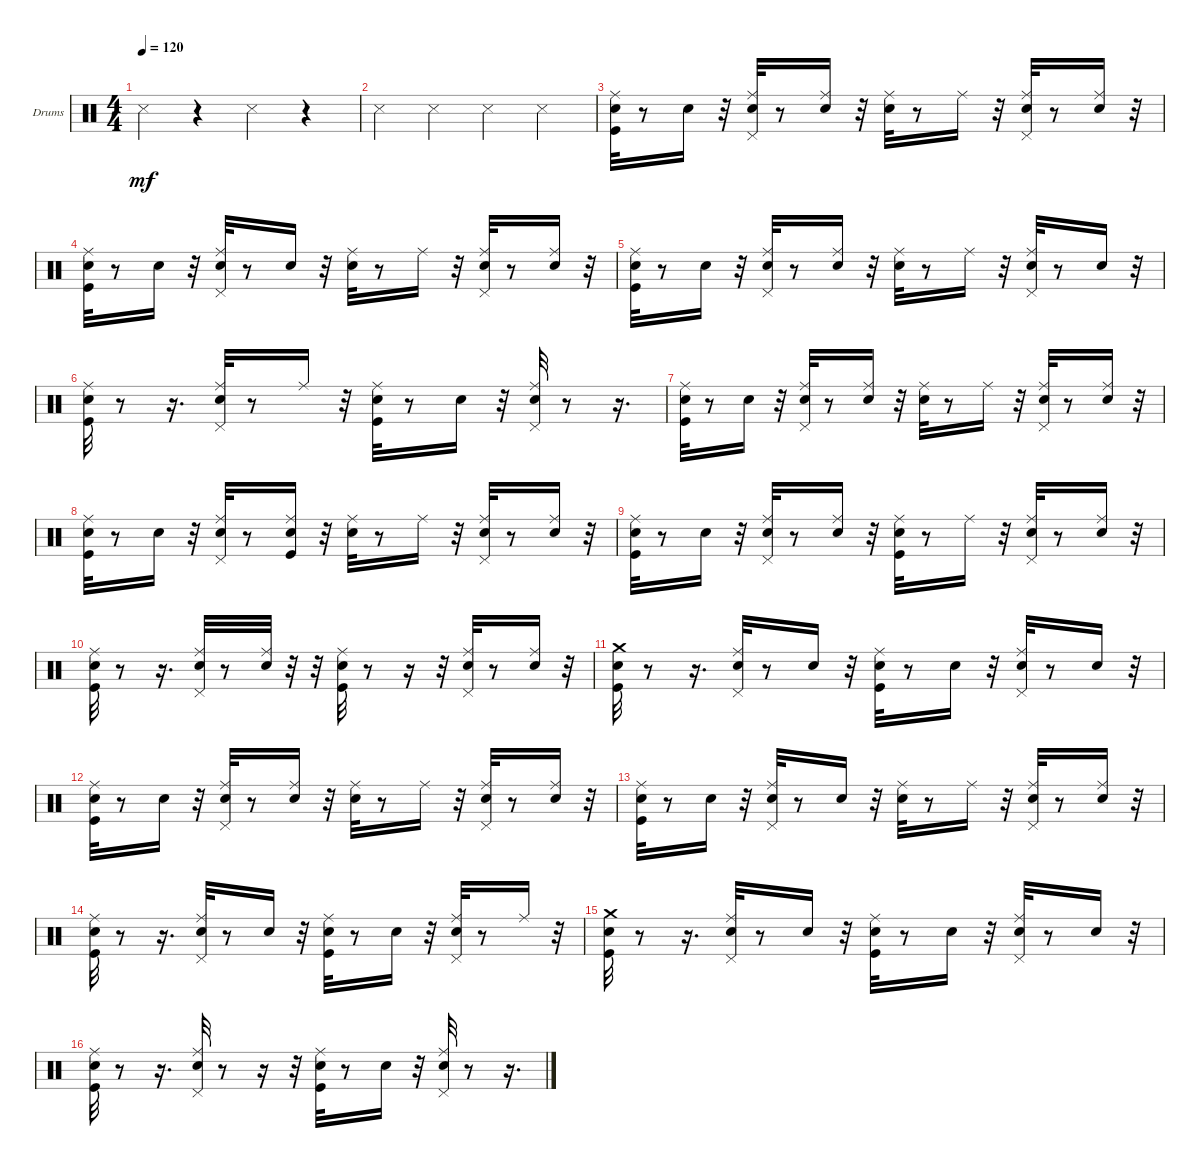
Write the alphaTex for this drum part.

\bracketExtendMode groupsimilarinstruments
\firstSystemTrackNameOrientation horizontal
\otherSystemsTrackNameOrientation horizontal
\track ("Drums   (BB)" "Drums") {instrument percussion}
\staff {score}
\articulation defaults
\ts (4 4)
\tempo 120
\clef neutral
\ks c "Snare (side stick) 3".4{dy mf}
r.4 "Snare (side stick) 3".4 r.4 |
"Snare (side stick) 3".4 "Snare (side stick) 3".4 "Snare (side stick) 3".4 "Snare (side stick) 3".4 |
("Kick (hit)" "Snare (hit) 2" "Ride (middle)").32 r.8 "Snare (hit) 2".16 r.32 ("Snare (hit) 2" "Ride (middle)" "Pedal Hi-Hat (hit)").32 r.8 ("Snare (hit) 2" "Ride (middle)").16 r.32 ("Snare (hit) 2" "Ride (middle)").32 r.8 "Ride (middle)".16 r.32 ("Snare (hit) 2" "Ride (middle)" "Pedal Hi-Hat (hit)").32 r.8 ("Snare (hit) 2" "Ride (middle)").16 r.32 |
("Kick (hit)" "Snare (hit) 2" "Ride (middle)").32 r.8 "Snare (hit) 2".16 r.32 ("Snare (hit) 2" "Ride (middle)" "Pedal Hi-Hat (hit)").32 r.8 "Snare (hit) 2".16 r.32 ("Snare (hit) 2" "Ride (middle)").32 r.8 "Ride (middle)".16 r.32 ("Snare (hit) 2" "Ride (middle)" "Pedal Hi-Hat (hit)").32 r.8 ("Snare (hit) 2" "Ride (middle)").16 r.32 |
("Kick (hit)" "Snare (hit) 2" "Ride (middle)").32 r.8 "Snare (hit) 2".16 r.32 ("Snare (hit) 2" "Ride (middle)" "Pedal Hi-Hat (hit)").32 r.8 ("Snare (hit) 2" "Ride (middle)").16 r.32 ("Snare (hit) 2" "Ride (middle)").32 r.8 "Ride (middle)".16 r.32 ("Snare (hit) 2" "Ride (middle)" "Pedal Hi-Hat (hit)").32 r.8 "Snare (hit) 2".16 r.32 |
("Kick (hit)" "Snare (hit) 2" "Ride (middle)").32 r.8 r.16{d} ("Snare (hit) 2" "Ride (middle)" "Pedal Hi-Hat (hit)").32 r.8 "Ride (middle)".16 r.32 ("Kick (hit)" "Snare (hit) 2" "Ride (middle)").32 r.8 "Snare (hit) 2".16 r.32 ("Snare (hit) 2" "Ride (middle)" "Pedal Hi-Hat (hit)").32 r.8 r.16{d} |
("Kick (hit)" "Snare (hit) 2" "Ride (middle)").32 r.8 "Snare (hit) 2".16 r.32 ("Snare (hit) 2" "Ride (middle)" "Pedal Hi-Hat (hit)").32 r.8 ("Snare (hit) 2" "Ride (middle)").16 r.32 ("Snare (hit) 2" "Ride (middle)").32 r.8 "Ride (middle)".16 r.32 ("Snare (hit) 2" "Ride (middle)" "Pedal Hi-Hat (hit)").32 r.8 ("Snare (hit) 2" "Ride (middle)").16 r.32 |
("Kick (hit)" "Snare (hit) 2" "Ride (middle)").32 r.8 "Snare (hit) 2".16 r.32 ("Snare (hit) 2" "Ride (middle)" "Pedal Hi-Hat (hit)").32 r.8 ("Kick (hit)" "Snare (hit) 2" "Ride (middle)").16 r.32 ("Snare (hit) 2" "Ride (middle)").32 r.8 "Ride (middle)".16 r.32 ("Snare (hit) 2" "Ride (middle)" "Pedal Hi-Hat (hit)").32 r.8 ("Snare (hit) 2" "Ride (middle)").16 r.32 |
("Kick (hit)" "Snare (hit) 2" "Ride (middle)").32 r.8 "Snare (hit) 2".16 r.32 ("Snare (hit) 2" "Ride (middle)" "Pedal Hi-Hat (hit)").32 r.8 ("Snare (hit) 2" "Ride (middle)").16 r.32 ("Kick (hit)" "Snare (hit) 2" "Ride (middle)").32 r.8 "Ride (middle)".16 r.32 ("Snare (hit) 2" "Ride (middle)" "Pedal Hi-Hat (hit)").32 r.8 ("Snare (hit) 2" "Ride (middle)").16 r.32 |
("Kick (hit)" "Snare (hit) 2" "Ride (middle)").32 r.8 r.16{d} ("Snare (hit) 2" "Ride (middle)" "Pedal Hi-Hat (hit)").32 r.8 ("Snare (hit) 2" "Ride (middle)").32 r.32 r.32 ("Kick (hit)" "Snare (hit) 2" "Ride (middle)").32 r.8 r.16 r.32 ("Snare (hit) 2" "Ride (middle)" "Pedal Hi-Hat (hit)").32 r.8 ("Snare (hit) 2" "Ride (middle)").16 r.32 |
("Kick (hit)" "Snare (hit) 2" "Crash medium (hit)").32 r.8 r.16{d} ("Snare (hit) 2" "Ride (middle)" "Pedal Hi-Hat (hit)").32 r.8 "Snare (hit) 2".16 r.32 ("Kick (hit)" "Snare (hit) 2" "Ride (middle)").32 r.8 "Snare (hit) 2".16 r.32 ("Snare (hit) 2" "Ride (middle)" "Pedal Hi-Hat (hit)").32 r.8 "Snare (hit) 2".16 r.32 |
("Kick (hit)" "Snare (hit) 2" "Ride (middle)").32 r.8 "Snare (hit) 2".16 r.32 ("Snare (hit) 2" "Ride (middle)" "Pedal Hi-Hat (hit)").32 r.8 ("Snare (hit) 2" "Ride (middle)").16 r.32 ("Snare (hit) 2" "Ride (middle)").32 r.8 "Ride (middle)".16 r.32 ("Snare (hit) 2" "Ride (middle)" "Pedal Hi-Hat (hit)").32 r.8 ("Snare (hit) 2" "Ride (middle)").16 r.32 |
("Kick (hit)" "Snare (hit) 2" "Ride (middle)").32 r.8 "Snare (hit) 2".16 r.32 ("Snare (hit) 2" "Ride (middle)" "Pedal Hi-Hat (hit)").32 r.8 "Snare (hit) 2".16 r.32 ("Snare (hit) 2" "Ride (middle)").32 r.8 "Ride (middle)".16 r.32 ("Snare (hit) 2" "Ride (middle)" "Pedal Hi-Hat (hit)").32 r.8 ("Snare (hit) 2" "Ride (middle)").16 r.32 |
("Kick (hit)" "Snare (hit) 2" "Ride (middle)").32 r.8 r.16{d} ("Snare (hit) 2" "Ride (middle)" "Pedal Hi-Hat (hit)").32 r.8 "Snare (hit) 2".16 r.32 ("Kick (hit)" "Snare (hit) 2" "Ride (middle)").32 r.8 "Snare (hit) 2".16 r.32 ("Snare (hit) 2" "Ride (middle)" "Pedal Hi-Hat (hit)").32 r.8 "Ride (middle)".16 r.32 |
("Kick (hit)" "Snare (hit) 2" "Crash medium (hit)").32 r.8 r.16{d} ("Snare (hit) 2" "Ride (middle)" "Pedal Hi-Hat (hit)").32 r.8 "Snare (hit) 2".16 r.32 ("Kick (hit)" "Snare (hit) 2" "Ride (middle)").32 r.8 "Snare (hit) 2".16 r.32 ("Snare (hit) 2" "Ride (middle)" "Pedal Hi-Hat (hit)").32 r.8 "Snare (hit) 2".16 r.32 |
("Kick (hit)" "Snare (hit) 2" "Ride (middle)").32 r.8 r.16{d} ("Snare (hit) 2" "Ride (middle)" "Pedal Hi-Hat (hit)").32 r.8 r.16 r.32 ("Kick (hit)" "Snare (hit) 2" "Ride (middle)").32 r.8 "Snare (hit) 2".16 r.32 ("Snare (hit) 2" "Ride (middle)" "Pedal Hi-Hat (hit)").32 r.8 r.16{d}
